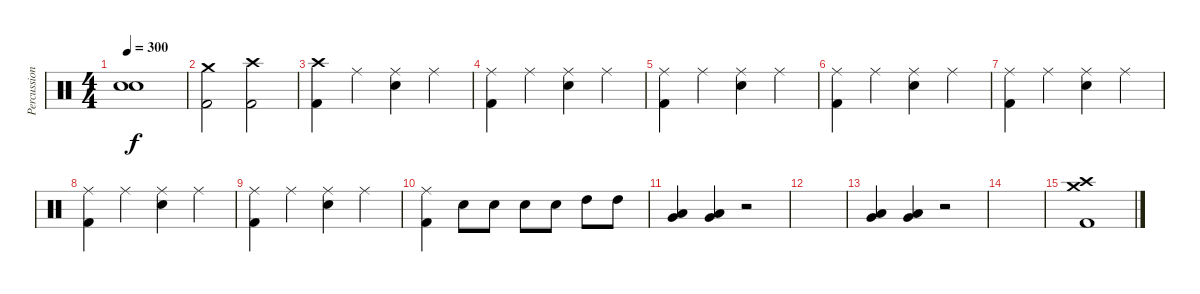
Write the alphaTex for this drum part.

\track ("Percussion" "Percussion") {instrument percussion}
\staff {score}
\articulation defaults
\ts (4 4)
\tempo 300
\clef neutral
\ks c
("Snare (hit) 2" "Snare (hit) 2").1{dy f} |
("Crash medium (hit)" "Kick (hit) 2").2 ("Crash high (hit)" "Kick (hit) 2").2 |
("Crash high (hit)" "Kick (hit) 2").4 "Ride (middle)".4 ("Ride (middle)" "Snare (hit) 2").4 "Ride (middle)".4 |
("Ride (middle)" "Kick (hit) 2").4 "Ride (middle)".4 ("Ride (middle)" "Snare (hit) 2").4 "Ride (middle)".4 |
("Ride (middle)" "Kick (hit) 2").4 "Ride (middle)".4 ("Ride (middle)" "Snare (hit) 2").4 "Ride (middle)".4 |
("Ride (middle)" "Kick (hit) 2").4 "Ride (middle)".4 ("Ride (middle)" "Snare (hit) 2").4 "Ride (middle)".4 |
("Ride (middle)" "Kick (hit) 2").4 "Ride (middle)".4 ("Ride (middle)" "Snare (hit) 2").4 "Ride (middle)".4 |
("Ride (middle)" "Kick (hit) 2").4 "Ride (middle)".4 ("Ride (middle)" "Snare (hit) 2").4 "Ride (middle)".4 |
("Ride (middle)" "Kick (hit) 2").4 "Ride (middle)".4 ("Ride (middle)" "Snare (hit) 2").4 "Ride (middle)".4 |
("Ride (middle)" "Kick (hit) 2").4 "Snare (hit) 2".8 "Snare (hit) 2".8 "Snare (hit) 2".8 "Snare (hit) 2".8 "High Tom (hit)".8 "High Tom (hit)".8 |
("Very Low Tom (hit)" "Low Floor Tom (hit)").4 ("Very Low Tom (hit)" "Low Floor Tom (hit)").4 r.2 |
|
("Very Low Tom (hit)" "Low Floor Tom (hit)").4 ("Very Low Tom (hit)" "Low Floor Tom (hit)").4 r.2 |
|
("Crash medium (hit)" "Crash high (hit)" "Kick (hit) 2").1
